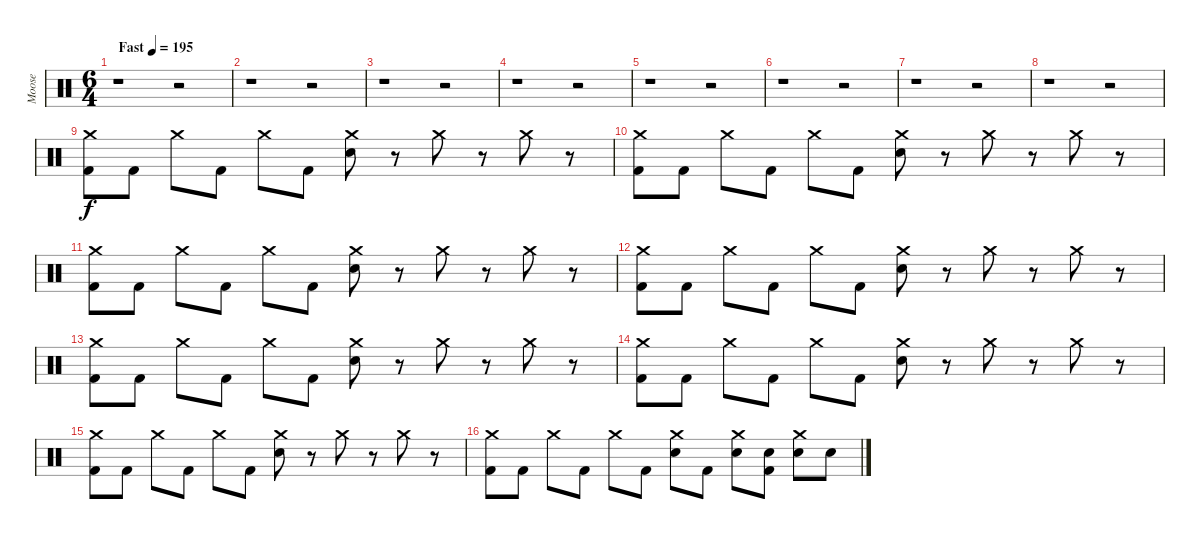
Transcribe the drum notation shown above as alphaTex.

\track ("Moose" "Moose") {instrument percussion}
\staff {score}
\articulation defaults
\ts (6 4)
\tempo (195 "Fast")
\clef neutral
\ks c
r.1{dy f} r.2 |
r.1 r.2 |
r.1 r.2 |
r.1 r.2 |
r.1 r.2 |
r.1 r.2 |
r.1 r.2 |
r.1 r.2 |
("Crash medium (hit)" "Kick (hit) 2").8 "Kick (hit) 2".8 "Crash medium (hit)".8 "Kick (hit) 2".8 "Crash medium (hit)".8 "Kick (hit) 2".8 ("Crash medium (hit)" "Electric Snare (hit)").8 r.8 "Crash medium (hit)".8 r.8 "Crash medium (hit)".8 r.8 |
("Crash medium (hit)" "Kick (hit) 2").8 "Kick (hit) 2".8 "Crash medium (hit)".8 "Kick (hit) 2".8 "Crash medium (hit)".8 "Kick (hit) 2".8 ("Crash medium (hit)" "Electric Snare (hit)").8 r.8 "Crash medium (hit)".8 r.8 "Crash medium (hit)".8 r.8 |
("Crash medium (hit)" "Kick (hit) 2").8 "Kick (hit) 2".8 "Crash medium (hit)".8 "Kick (hit) 2".8 "Crash medium (hit)".8 "Kick (hit) 2".8 ("Crash medium (hit)" "Electric Snare (hit)").8 r.8 "Crash medium (hit)".8 r.8 "Crash medium (hit)".8 r.8 |
("Crash medium (hit)" "Kick (hit) 2").8 "Kick (hit) 2".8 "Crash medium (hit)".8 "Kick (hit) 2".8 "Crash medium (hit)".8 "Kick (hit) 2".8 ("Crash medium (hit)" "Electric Snare (hit)").8 r.8 "Crash medium (hit)".8 r.8 "Crash medium (hit)".8 r.8 |
("Crash medium (hit)" "Kick (hit) 2").8 "Kick (hit) 2".8 "Crash medium (hit)".8 "Kick (hit) 2".8 "Crash medium (hit)".8 "Kick (hit) 2".8 ("Crash medium (hit)" "Electric Snare (hit)").8 r.8 "Crash medium (hit)".8 r.8 "Crash medium (hit)".8 r.8 |
("Crash medium (hit)" "Kick (hit) 2").8 "Kick (hit) 2".8 "Crash medium (hit)".8 "Kick (hit) 2".8 "Crash medium (hit)".8 "Kick (hit) 2".8 ("Crash medium (hit)" "Electric Snare (hit)").8 r.8 "Crash medium (hit)".8 r.8 "Crash medium (hit)".8 r.8 |
("Crash medium (hit)" "Kick (hit) 2").8 "Kick (hit) 2".8 "Crash medium (hit)".8 "Kick (hit) 2".8 "Crash medium (hit)".8 "Kick (hit) 2".8 ("Crash medium (hit)" "Electric Snare (hit)").8 r.8 "Crash medium (hit)".8 r.8 "Crash medium (hit)".8 r.8 |
("Crash medium (hit)" "Kick (hit) 2").8 "Kick (hit) 2".8 "Crash medium (hit)".8 "Kick (hit) 2".8 "Crash medium (hit)".8 "Kick (hit) 2".8 ("Crash medium (hit)" "Electric Snare (hit)").8 "Kick (hit) 2".8 ("Crash medium (hit)" "Electric Snare (hit)").8 ("Electric Snare (hit)" "Kick (hit) 2").8 ("Crash medium (hit)" "Electric Snare (hit)").8 "Electric Snare (hit)".8
